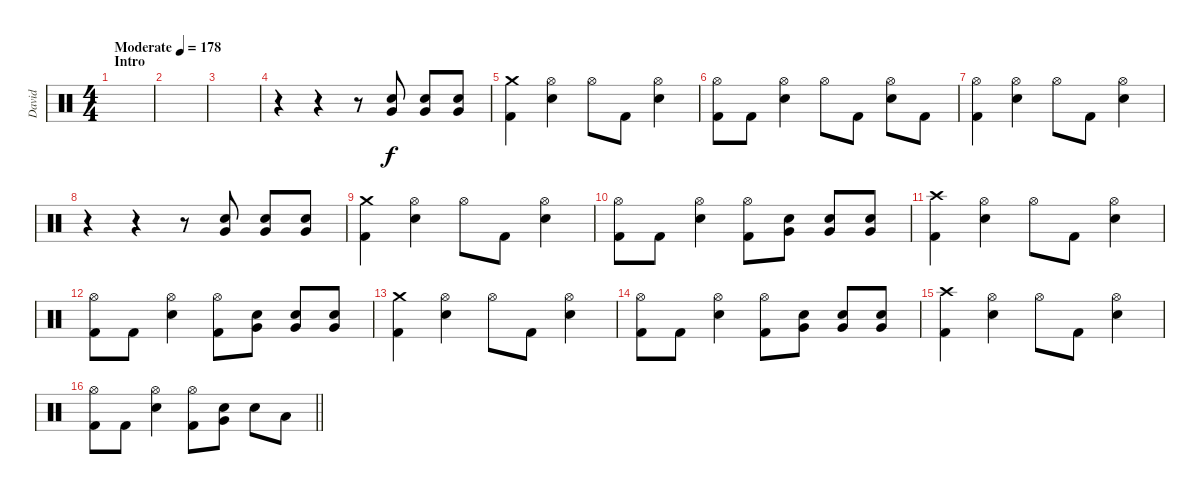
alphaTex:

\track ("David" "David") {instrument percussion}
\staff {score}
\articulation defaults
\ts (4 4)
\section ("" "Intro")
\tempo (178 "Moderate")
\clef neutral
\ks c
|
|
|
r.4 r.4 r.8 ("Electric Snare (hit)" "Very Low Tom (hit)").8 ("Electric Snare (hit)" "Very Low Tom (hit)").8 ("Electric Snare (hit)" "Very Low Tom (hit)").8 |
("Crash medium (hit)" "Kick (hit) 2").4 ("Hi-Hat (open)" "Electric Snare (hit)").4 "Hi-Hat (open)".8 "Kick (hit) 2".8 ("Hi-Hat (open)" "Electric Snare (hit)").4 |
("Hi-Hat (open)" "Kick (hit) 2").8 "Kick (hit) 2".8 ("Hi-Hat (open)" "Electric Snare (hit)").4 "Hi-Hat (open)".8 "Kick (hit) 2".8 ("Hi-Hat (open)" "Electric Snare (hit)").8 "Kick (hit) 2".8 |
("Hi-Hat (open)" "Kick (hit) 2").4 ("Hi-Hat (open)" "Electric Snare (hit)").4 "Hi-Hat (open)".8 "Kick (hit) 2".8 ("Hi-Hat (open)" "Electric Snare (hit)").4 |
r.4 r.4 r.8 ("Electric Snare (hit)" "Very Low Tom (hit)").8 ("Electric Snare (hit)" "Very Low Tom (hit)").8 ("Electric Snare (hit)" "Very Low Tom (hit)").8 |
("Crash medium (hit)" "Kick (hit) 2").4 ("Hi-Hat (open)" "Electric Snare (hit)").4 "Hi-Hat (open)".8 "Kick (hit) 2".8 ("Hi-Hat (open)" "Electric Snare (hit)").4 |
("Hi-Hat (open)" "Kick (hit) 2").8 "Kick (hit) 2".8 ("Hi-Hat (open)" "Electric Snare (hit)").4 ("Hi-Hat (open)" "Kick (hit) 2").8 ("Electric Snare (hit)" "Very Low Tom (hit)").8 ("Electric Snare (hit)" "Very Low Tom (hit)").8 ("Electric Snare (hit)" "Very Low Tom (hit)").8 |
("Crash high (hit)" "Kick (hit) 2").4 ("Hi-Hat (open)" "Electric Snare (hit)").4 "Hi-Hat (open)".8 "Kick (hit) 2".8 ("Hi-Hat (open)" "Electric Snare (hit)").4 |
("Hi-Hat (open)" "Kick (hit) 2").8 "Kick (hit) 2".8 ("Hi-Hat (open)" "Electric Snare (hit)").4 ("Hi-Hat (open)" "Kick (hit) 2").8 ("Electric Snare (hit)" "Very Low Tom (hit)").8 ("Electric Snare (hit)" "Very Low Tom (hit)").8 ("Electric Snare (hit)" "Very Low Tom (hit)").8 |
("Crash medium (hit)" "Kick (hit) 2").4 ("Hi-Hat (open)" "Electric Snare (hit)").4 "Hi-Hat (open)".8 "Kick (hit) 2".8 ("Hi-Hat (open)" "Electric Snare (hit)").4 |
("Hi-Hat (open)" "Kick (hit) 2").8 "Kick (hit) 2".8 ("Hi-Hat (open)" "Electric Snare (hit)").4 ("Hi-Hat (open)" "Kick (hit) 2").8 ("Electric Snare (hit)" "Very Low Tom (hit)").8 ("Electric Snare (hit)" "Very Low Tom (hit)").8 ("Electric Snare (hit)" "Very Low Tom (hit)").8 |
("Crash high (hit)" "Kick (hit) 2").4 ("Hi-Hat (open)" "Electric Snare (hit)").4 "Hi-Hat (open)".8 "Kick (hit) 2".8 ("Hi-Hat (open)" "Electric Snare (hit)").4 |
\barLineRight lightlight
("Hi-Hat (open)" "Kick (hit) 2").8 "Kick (hit) 2".8 ("Hi-Hat (open)" "Electric Snare (hit)").4 ("Hi-Hat (open)" "Kick (hit) 2").8 ("Electric Snare (hit)" "Very Low Tom (hit)").8 "Electric Snare (hit)".8 "Low Tom (hit)".8
